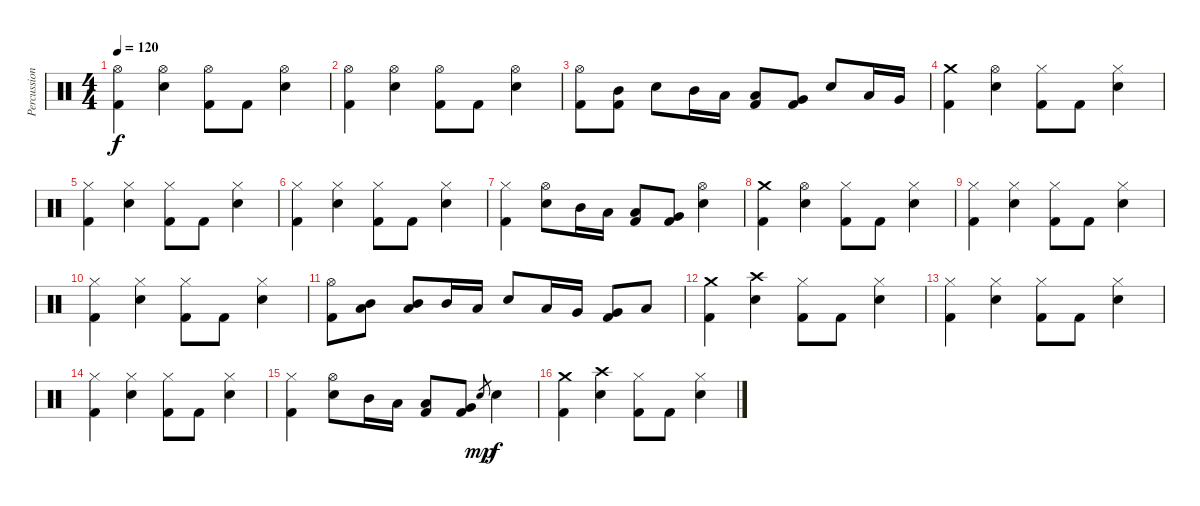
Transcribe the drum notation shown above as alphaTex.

\track ("Percussion" "Percussion") {instrument percussion}
\staff {score}
\articulation defaults
\ts (4 4)
\tempo 120
\clef neutral
\ks c
("Hi-Hat (open)" "Kick (hit) 2").4{dy f} ("Hi-Hat (open)" "Snare (hit) 2").4 ("Hi-Hat (open)" "Kick (hit) 2").8 "Kick (hit) 2".8 ("Hi-Hat (open)" "Snare (hit) 2").4 |
("Hi-Hat (open)" "Kick (hit) 2").4 ("Hi-Hat (open)" "Snare (hit) 2").4 ("Hi-Hat (open)" "Kick (hit) 2").8 "Kick (hit) 2".8 ("Hi-Hat (open)" "Snare (hit) 2").4 |
("Hi-Hat (open)" "Kick (hit) 2").8 ("Mid Tom (hit)" "Kick (hit) 2").8 "Snare (hit) 2".8 "Mid Tom (hit)".16 "Low Tom (hit)".16 ("Low Tom (hit)" "Kick (hit) 2").8 ("Very Low Tom (hit)" "Kick (hit) 2").8 "Snare (hit) 2".8 "Low Tom (hit)".16 "Very Low Tom (hit)".16 |
("Crash medium (hit)" "Kick (hit) 2").4 ("Hi-Hat (open)" "Snare (hit) 2").4 ("Hi-Hat (closed)" "Kick (hit) 2").8 "Kick (hit) 2".8 ("Hi-Hat (closed)" "Snare (hit) 2").4 |
("Hi-Hat (closed)" "Kick (hit) 2").4 ("Hi-Hat (closed)" "Snare (hit) 2").4 ("Hi-Hat (closed)" "Kick (hit) 2").8 "Kick (hit) 2".8 ("Hi-Hat (closed)" "Snare (hit) 2").4 |
("Hi-Hat (closed)" "Kick (hit) 2").4 ("Hi-Hat (closed)" "Snare (hit) 2").4 ("Hi-Hat (closed)" "Kick (hit) 2").8 "Kick (hit) 2".8 ("Hi-Hat (closed)" "Snare (hit) 2").4 |
("Hi-Hat (closed)" "Kick (hit) 2").4 ("Hi-Hat (open)" "Snare (hit) 2").8 "Mid Tom (hit)".16 "Low Tom (hit)".16 ("Low Tom (hit)" "Kick (hit) 2").8 ("Very Low Tom (hit)" "Kick (hit) 2").8 ("Hi-Hat (open)" "Snare (hit) 2").4 |
("Crash medium (hit)" "Kick (hit) 2").4 ("Hi-Hat (open)" "Snare (hit) 2").4 ("Hi-Hat (closed)" "Kick (hit) 2").8 "Kick (hit) 2".8 ("Hi-Hat (closed)" "Snare (hit) 2").4 |
("Hi-Hat (closed)" "Kick (hit) 2").4 ("Hi-Hat (closed)" "Snare (hit) 2").4 ("Hi-Hat (closed)" "Kick (hit) 2").8 "Kick (hit) 2".8 ("Hi-Hat (closed)" "Snare (hit) 2").4 |
("Hi-Hat (closed)" "Kick (hit) 2").4 ("Hi-Hat (closed)" "Snare (hit) 2").4 ("Hi-Hat (closed)" "Kick (hit) 2").8 "Kick (hit) 2".8 ("Hi-Hat (closed)" "Snare (hit) 2").4 |
("Hi-Hat (open)" "Kick (hit) 2").8 ("Low Tom (hit)" "Mid Tom (hit)").8 ("Low Tom (hit)" "Mid Tom (hit)").8 "Mid Tom (hit)".16 "Low Tom (hit)".16 "Snare (hit) 2".8 "Low Tom (hit)".16 "Very Low Tom (hit)".16 ("Very Low Tom (hit)" "Kick (hit) 2").8 "Low Floor Tom (hit)".8 |
("Crash medium (hit)" "Kick (hit) 2").4 ("Crash high (hit)" "Snare (hit) 2").4 ("Hi-Hat (closed)" "Kick (hit) 2").8 "Kick (hit) 2".8 ("Hi-Hat (closed)" "Snare (hit) 2").4 |
("Hi-Hat (closed)" "Kick (hit) 2").4 ("Hi-Hat (closed)" "Snare (hit) 2").4 ("Hi-Hat (closed)" "Kick (hit) 2").8 "Kick (hit) 2".8 ("Hi-Hat (closed)" "Snare (hit) 2").4 |
("Hi-Hat (closed)" "Kick (hit) 2").4 ("Hi-Hat (closed)" "Snare (hit) 2").4 ("Hi-Hat (closed)" "Kick (hit) 2").8 "Kick (hit) 2".8 ("Hi-Hat (closed)" "Snare (hit) 2").4 |
("Hi-Hat (closed)" "Kick (hit) 2").4 ("Hi-Hat (open)" "Snare (hit) 2").8 "Mid Tom (hit)".16 "Low Tom (hit)".16 ("Low Tom (hit)" "Kick (hit) 2").8 ("Very Low Tom (hit)" "Kick (hit) 2").8 "Snare (hit) 2".8{gr dy mp} "Snare (hit) 2".4{dy f} |
("Crash medium (hit)" "Kick (hit) 2").4 ("Crash high (hit)" "Snare (hit) 2").4 ("Hi-Hat (closed)" "Kick (hit) 2").8 "Kick (hit) 2".8 ("Hi-Hat (closed)" "Snare (hit) 2").4
